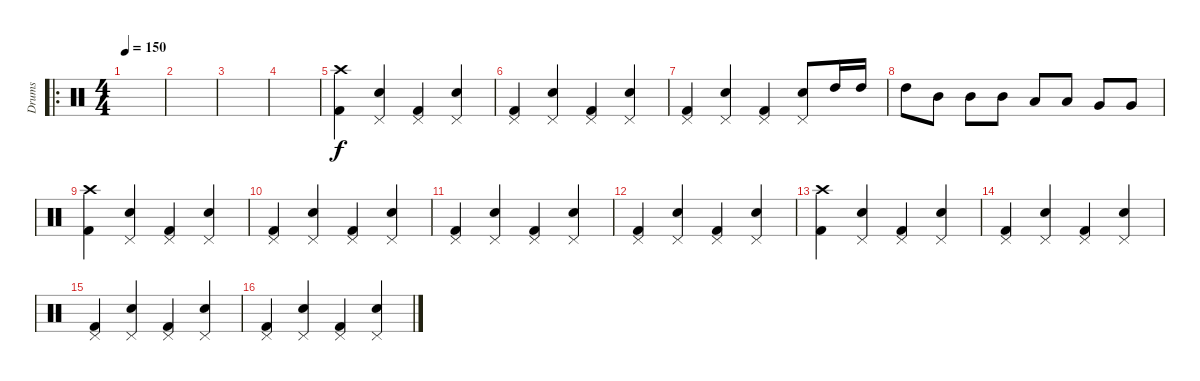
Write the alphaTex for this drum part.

\track ("Drums" "Drums") {instrument percussion}
\staff {score}
\articulation defaults
\ro
\ts (4 4)
\tempo 150
\clef neutral
\ks c
|
|
|
|
("Crash high (hit)" "Kick (hit) 2").4 ("Pedal Hi-Hat (hit)" "Electric Snare (hit)").4 ("Pedal Hi-Hat (hit)" "Kick (hit) 2").4 ("Pedal Hi-Hat (hit)" "Electric Snare (hit)").4 |
("Pedal Hi-Hat (hit)" "Kick (hit) 2").4 ("Pedal Hi-Hat (hit)" "Electric Snare (hit)").4 ("Pedal Hi-Hat (hit)" "Kick (hit) 2").4 ("Pedal Hi-Hat (hit)" "Electric Snare (hit)").4 |
("Pedal Hi-Hat (hit)" "Kick (hit) 2").4 ("Pedal Hi-Hat (hit)" "Electric Snare (hit)").4 ("Pedal Hi-Hat (hit)" "Kick (hit) 2").4 ("Pedal Hi-Hat (hit)" "Electric Snare (hit)").8 "High Tom (hit)".16 "High Tom (hit)".16 |
"High Tom (hit)".8 "Mid Tom (hit)".8 "Mid Tom (hit)".8 "Mid Tom (hit)".8 "Low Tom (hit)".8 "Low Tom (hit)".8 "Very Low Tom (hit)".8 "Very Low Tom (hit)".8 |
("Crash high (hit)" "Kick (hit) 2").4 ("Pedal Hi-Hat (hit)" "Electric Snare (hit)").4 ("Pedal Hi-Hat (hit)" "Kick (hit) 2").4 ("Pedal Hi-Hat (hit)" "Electric Snare (hit)").4 |
("Pedal Hi-Hat (hit)" "Kick (hit) 2").4 ("Pedal Hi-Hat (hit)" "Electric Snare (hit)").4 ("Pedal Hi-Hat (hit)" "Kick (hit) 2").4 ("Pedal Hi-Hat (hit)" "Electric Snare (hit)").4 |
("Pedal Hi-Hat (hit)" "Kick (hit) 2").4 ("Pedal Hi-Hat (hit)" "Electric Snare (hit)").4 ("Pedal Hi-Hat (hit)" "Kick (hit) 2").4 ("Pedal Hi-Hat (hit)" "Electric Snare (hit)").4 |
("Pedal Hi-Hat (hit)" "Kick (hit) 2").4 ("Pedal Hi-Hat (hit)" "Electric Snare (hit)").4 ("Pedal Hi-Hat (hit)" "Kick (hit) 2").4 ("Pedal Hi-Hat (hit)" "Electric Snare (hit)").4 |
("Crash high (hit)" "Kick (hit) 2").4 ("Pedal Hi-Hat (hit)" "Electric Snare (hit)").4 ("Pedal Hi-Hat (hit)" "Kick (hit) 2").4 ("Pedal Hi-Hat (hit)" "Electric Snare (hit)").4 |
("Pedal Hi-Hat (hit)" "Kick (hit) 2").4 ("Pedal Hi-Hat (hit)" "Electric Snare (hit)").4 ("Pedal Hi-Hat (hit)" "Kick (hit) 2").4 ("Pedal Hi-Hat (hit)" "Electric Snare (hit)").4 |
("Pedal Hi-Hat (hit)" "Kick (hit) 2").4 ("Pedal Hi-Hat (hit)" "Electric Snare (hit)").4 ("Pedal Hi-Hat (hit)" "Kick (hit) 2").4 ("Pedal Hi-Hat (hit)" "Electric Snare (hit)").4 |
("Pedal Hi-Hat (hit)" "Kick (hit) 2").4 ("Pedal Hi-Hat (hit)" "Electric Snare (hit)").4 ("Pedal Hi-Hat (hit)" "Kick (hit) 2").4 ("Pedal Hi-Hat (hit)" "Electric Snare (hit)").4
